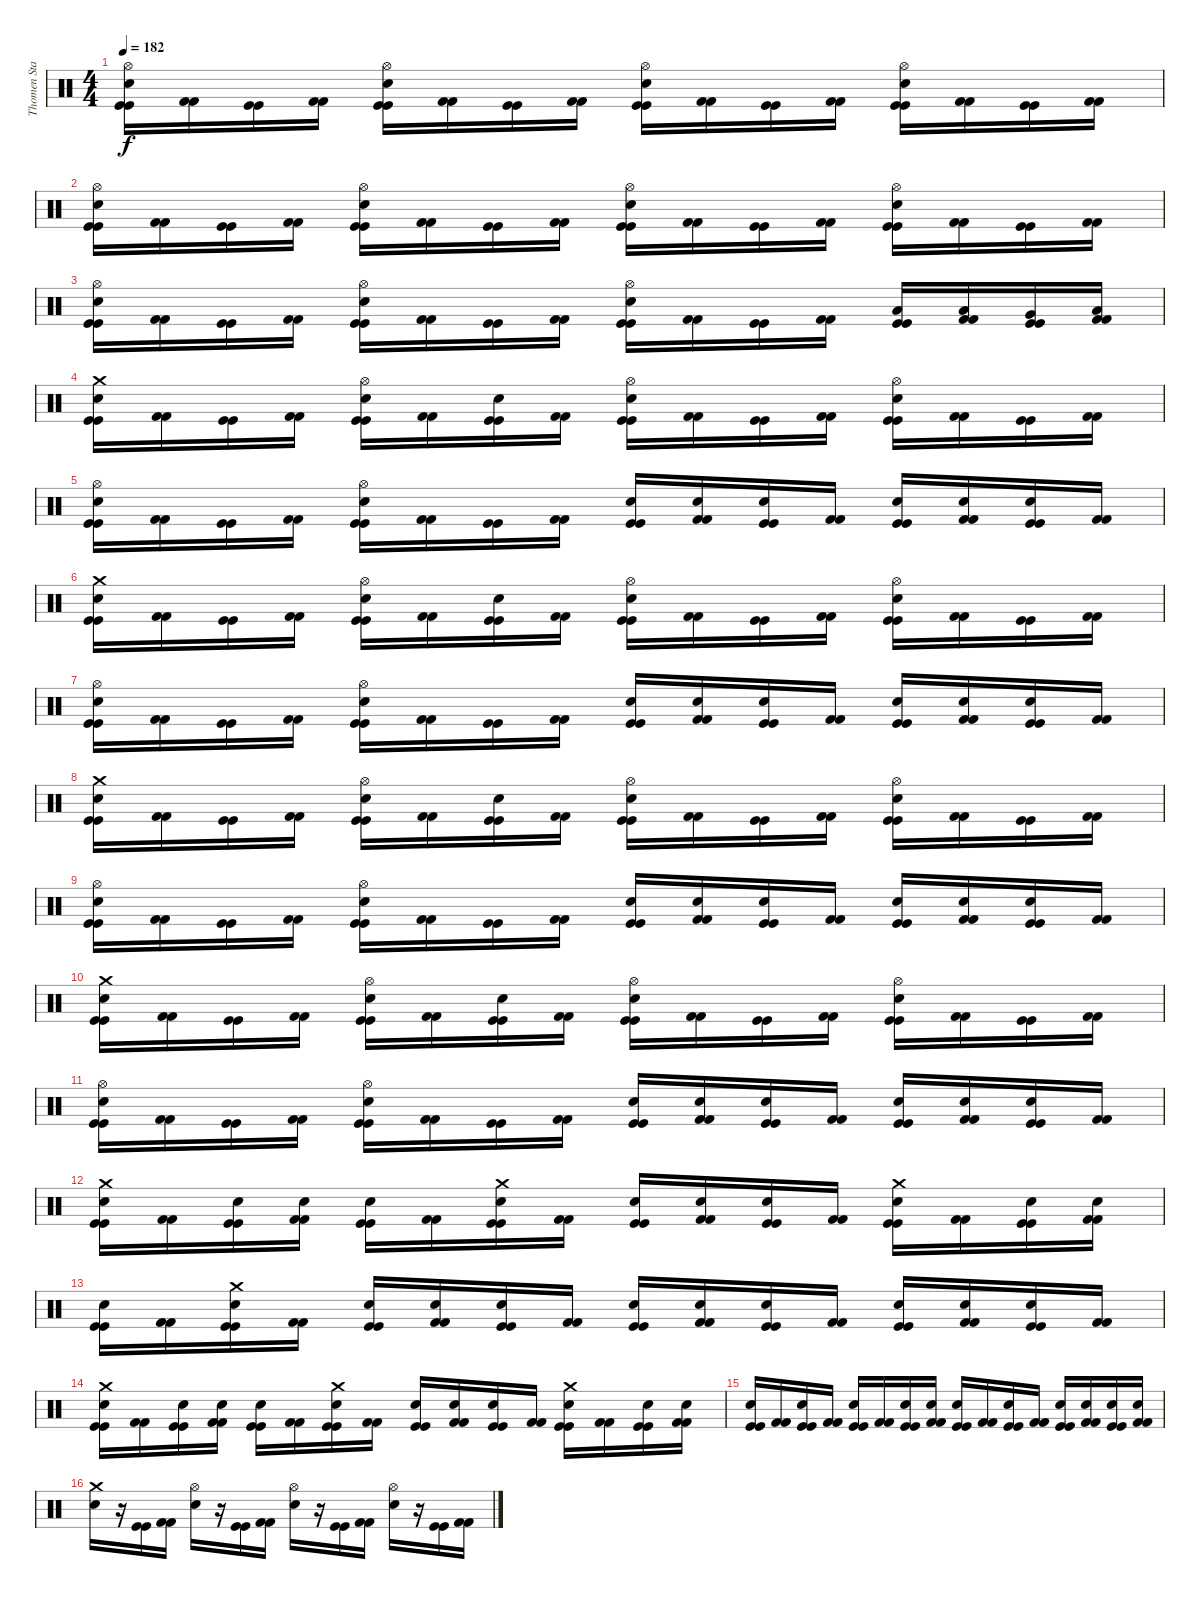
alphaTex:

\track ("Thomen Stauch" "Thomen Sta") {instrument percussion}
\staff {score}
\articulation defaults
\ts (4 4)
\tempo 182
\clef neutral
\ks c
("Hi-Hat (open)" "Snare (hit) 2" "Kick (hit)" "Kick (hit)").16{dy f} ("Kick (hit) 2" "Kick (hit) 2").16 ("Kick (hit)" "Kick (hit)").16 ("Kick (hit) 2" "Kick (hit) 2").16 ("Hi-Hat (open)" "Snare (hit) 2" "Kick (hit)" "Kick (hit)").16 ("Kick (hit) 2" "Kick (hit) 2").16 ("Kick (hit)" "Kick (hit)").16 ("Kick (hit) 2" "Kick (hit) 2").16 ("Hi-Hat (open)" "Snare (hit) 2" "Kick (hit)" "Kick (hit)").16 ("Kick (hit) 2" "Kick (hit) 2").16 ("Kick (hit)" "Kick (hit)").16 ("Kick (hit) 2" "Kick (hit) 2").16 ("Hi-Hat (open)" "Snare (hit) 2" "Kick (hit)" "Kick (hit)").16 ("Kick (hit) 2" "Kick (hit) 2").16 ("Kick (hit)" "Kick (hit)").16 ("Kick (hit) 2" "Kick (hit) 2").16 |
("Hi-Hat (open)" "Snare (hit) 2" "Kick (hit)" "Kick (hit)").16 ("Kick (hit) 2" "Kick (hit) 2").16 ("Kick (hit)" "Kick (hit)").16 ("Kick (hit) 2" "Kick (hit) 2").16 ("Hi-Hat (open)" "Snare (hit) 2" "Kick (hit)" "Kick (hit)").16 ("Kick (hit) 2" "Kick (hit) 2").16 ("Kick (hit)" "Kick (hit)").16 ("Kick (hit) 2" "Kick (hit) 2").16 ("Hi-Hat (open)" "Snare (hit) 2" "Kick (hit)" "Kick (hit)").16 ("Kick (hit) 2" "Kick (hit) 2").16 ("Kick (hit)" "Kick (hit)").16 ("Kick (hit) 2" "Kick (hit) 2").16 ("Hi-Hat (open)" "Snare (hit) 2" "Kick (hit)" "Kick (hit)").16 ("Kick (hit) 2" "Kick (hit) 2").16 ("Kick (hit)" "Kick (hit)").16 ("Kick (hit) 2" "Kick (hit) 2").16 |
("Hi-Hat (open)" "Snare (hit) 2" "Kick (hit)" "Kick (hit)").16 ("Kick (hit) 2" "Kick (hit) 2").16 ("Kick (hit)" "Kick (hit)").16 ("Kick (hit) 2" "Kick (hit) 2").16 ("Hi-Hat (open)" "Snare (hit) 2" "Kick (hit)" "Kick (hit)").16 ("Kick (hit) 2" "Kick (hit) 2").16 ("Kick (hit)" "Kick (hit)").16 ("Kick (hit) 2" "Kick (hit) 2").16 ("Hi-Hat (open)" "Snare (hit) 2" "Kick (hit)" "Kick (hit)").16 ("Kick (hit) 2" "Kick (hit) 2").16 ("Kick (hit)" "Kick (hit)").16 ("Kick (hit) 2" "Kick (hit) 2").16 ("Low Tom (hit)" "Kick (hit)" "Kick (hit)").16 ("Low Tom (hit)" "Kick (hit) 2" "Kick (hit) 2").16 ("Very Low Tom (hit)" "Kick (hit)" "Kick (hit)").16 ("Low Floor Tom (hit)" "Kick (hit) 2" "Kick (hit) 2").16 |
("Crash medium (hit)" "Snare (hit) 2" "Kick (hit)" "Kick (hit)").16 ("Kick (hit) 2" "Kick (hit) 2").16 ("Kick (hit)" "Kick (hit)").16 ("Kick (hit) 2" "Kick (hit) 2").16 ("Hi-Hat (open)" "Snare (hit) 2" "Kick (hit)" "Kick (hit)").16 ("Kick (hit) 2" "Kick (hit) 2").16 ("Snare (hit) 2" "Kick (hit)" "Kick (hit)").16 ("Kick (hit) 2" "Kick (hit) 2").16 ("Hi-Hat (open)" "Snare (hit) 2" "Kick (hit)" "Kick (hit)").16 ("Kick (hit) 2" "Kick (hit) 2").16 ("Kick (hit)" "Kick (hit)").16 ("Kick (hit) 2" "Kick (hit) 2").16 ("Hi-Hat (open)" "Snare (hit) 2" "Kick (hit)" "Kick (hit)").16 ("Kick (hit) 2" "Kick (hit) 2").16 ("Kick (hit)" "Kick (hit)").16 ("Kick (hit) 2" "Kick (hit) 2").16 |
("Hi-Hat (open)" "Snare (hit) 2" "Kick (hit)" "Kick (hit)").16 ("Kick (hit) 2" "Kick (hit) 2").16 ("Kick (hit)" "Kick (hit)").16 ("Kick (hit) 2" "Kick (hit) 2").16 ("Hi-Hat (open)" "Snare (hit) 2" "Kick (hit)" "Kick (hit)").16 ("Kick (hit) 2" "Kick (hit) 2").16 ("Kick (hit)" "Kick (hit)").16 ("Kick (hit) 2" "Kick (hit) 2").16 ("Snare (hit) 2" "Kick (hit)" "Kick (hit)").16 ("Snare (hit) 2" "Kick (hit) 2" "Kick (hit) 2").16 ("Snare (hit) 2" "Kick (hit)" "Kick (hit)").16 ("Kick (hit) 2" "Kick (hit) 2").16 ("Snare (hit) 2" "Kick (hit)" "Kick (hit)").16 ("Snare (hit) 2" "Kick (hit) 2" "Kick (hit) 2").16 ("Snare (hit) 2" "Kick (hit)" "Kick (hit)").16 ("Kick (hit) 2" "Kick (hit) 2").16 |
("Crash medium (hit)" "Snare (hit) 2" "Kick (hit)" "Kick (hit)").16 ("Kick (hit) 2" "Kick (hit) 2").16 ("Kick (hit)" "Kick (hit)").16 ("Kick (hit) 2" "Kick (hit) 2").16 ("Hi-Hat (open)" "Snare (hit) 2" "Kick (hit)" "Kick (hit)").16 ("Kick (hit) 2" "Kick (hit) 2").16 ("Snare (hit) 2" "Kick (hit)" "Kick (hit)").16 ("Kick (hit) 2" "Kick (hit) 2").16 ("Hi-Hat (open)" "Snare (hit) 2" "Kick (hit)" "Kick (hit)").16 ("Kick (hit) 2" "Kick (hit) 2").16 ("Kick (hit)" "Kick (hit)").16 ("Kick (hit) 2" "Kick (hit) 2").16 ("Hi-Hat (open)" "Snare (hit) 2" "Kick (hit)" "Kick (hit)").16 ("Kick (hit) 2" "Kick (hit) 2").16 ("Kick (hit)" "Kick (hit)").16 ("Kick (hit) 2" "Kick (hit) 2").16 |
("Hi-Hat (open)" "Snare (hit) 2" "Kick (hit)" "Kick (hit)").16 ("Kick (hit) 2" "Kick (hit) 2").16 ("Kick (hit)" "Kick (hit)").16 ("Kick (hit) 2" "Kick (hit) 2").16 ("Hi-Hat (open)" "Snare (hit) 2" "Kick (hit)" "Kick (hit)").16 ("Kick (hit) 2" "Kick (hit) 2").16 ("Kick (hit)" "Kick (hit)").16 ("Kick (hit) 2" "Kick (hit) 2").16 ("Snare (hit) 2" "Kick (hit)" "Kick (hit)").16 ("Snare (hit) 2" "Kick (hit) 2" "Kick (hit) 2").16 ("Snare (hit) 2" "Kick (hit)" "Kick (hit)").16 ("Kick (hit) 2" "Kick (hit) 2").16 ("Snare (hit) 2" "Kick (hit)" "Kick (hit)").16 ("Snare (hit) 2" "Kick (hit) 2" "Kick (hit) 2").16 ("Snare (hit) 2" "Kick (hit)" "Kick (hit)").16 ("Kick (hit) 2" "Kick (hit) 2").16 |
("Crash medium (hit)" "Snare (hit) 2" "Kick (hit)" "Kick (hit)").16 ("Kick (hit) 2" "Kick (hit) 2").16 ("Kick (hit)" "Kick (hit)").16 ("Kick (hit) 2" "Kick (hit) 2").16 ("Hi-Hat (open)" "Snare (hit) 2" "Kick (hit)" "Kick (hit)").16 ("Kick (hit) 2" "Kick (hit) 2").16 ("Snare (hit) 2" "Kick (hit)" "Kick (hit)").16 ("Kick (hit) 2" "Kick (hit) 2").16 ("Hi-Hat (open)" "Snare (hit) 2" "Kick (hit)" "Kick (hit)").16 ("Kick (hit) 2" "Kick (hit) 2").16 ("Kick (hit)" "Kick (hit)").16 ("Kick (hit) 2" "Kick (hit) 2").16 ("Hi-Hat (open)" "Snare (hit) 2" "Kick (hit)" "Kick (hit)").16 ("Kick (hit) 2" "Kick (hit) 2").16 ("Kick (hit)" "Kick (hit)").16 ("Kick (hit) 2" "Kick (hit) 2").16 |
("Hi-Hat (open)" "Snare (hit) 2" "Kick (hit)" "Kick (hit)").16 ("Kick (hit) 2" "Kick (hit) 2").16 ("Kick (hit)" "Kick (hit)").16 ("Kick (hit) 2" "Kick (hit) 2").16 ("Hi-Hat (open)" "Snare (hit) 2" "Kick (hit)" "Kick (hit)").16 ("Kick (hit) 2" "Kick (hit) 2").16 ("Kick (hit)" "Kick (hit)").16 ("Kick (hit) 2" "Kick (hit) 2").16 ("Snare (hit) 2" "Kick (hit)" "Kick (hit)").16 ("Snare (hit) 2" "Kick (hit) 2" "Kick (hit) 2").16 ("Snare (hit) 2" "Kick (hit)" "Kick (hit)").16 ("Kick (hit) 2" "Kick (hit) 2").16 ("Snare (hit) 2" "Kick (hit)" "Kick (hit)").16 ("Snare (hit) 2" "Kick (hit) 2" "Kick (hit) 2").16 ("Snare (hit) 2" "Kick (hit)" "Kick (hit)").16 ("Kick (hit) 2" "Kick (hit) 2").16 |
("Crash medium (hit)" "Snare (hit) 2" "Kick (hit)" "Kick (hit)").16 ("Kick (hit) 2" "Kick (hit) 2").16 ("Kick (hit)" "Kick (hit)").16 ("Kick (hit) 2" "Kick (hit) 2").16 ("Hi-Hat (open)" "Snare (hit) 2" "Kick (hit)" "Kick (hit)").16 ("Kick (hit) 2" "Kick (hit) 2").16 ("Snare (hit) 2" "Kick (hit)" "Kick (hit)").16 ("Kick (hit) 2" "Kick (hit) 2").16 ("Hi-Hat (open)" "Snare (hit) 2" "Kick (hit)" "Kick (hit)").16 ("Kick (hit) 2" "Kick (hit) 2").16 ("Kick (hit)" "Kick (hit)").16 ("Kick (hit) 2" "Kick (hit) 2").16 ("Hi-Hat (open)" "Snare (hit) 2" "Kick (hit)" "Kick (hit)").16 ("Kick (hit) 2" "Kick (hit) 2").16 ("Kick (hit)" "Kick (hit)").16 ("Kick (hit) 2" "Kick (hit) 2").16 |
("Hi-Hat (open)" "Snare (hit) 2" "Kick (hit)" "Kick (hit)").16 ("Kick (hit) 2" "Kick (hit) 2").16 ("Kick (hit)" "Kick (hit)").16 ("Kick (hit) 2" "Kick (hit) 2").16 ("Hi-Hat (open)" "Snare (hit) 2" "Kick (hit)" "Kick (hit)").16 ("Kick (hit) 2" "Kick (hit) 2").16 ("Kick (hit)" "Kick (hit)").16 ("Kick (hit) 2" "Kick (hit) 2").16 ("Snare (hit) 2" "Kick (hit)" "Kick (hit)").16 ("Snare (hit) 2" "Kick (hit) 2" "Kick (hit) 2").16 ("Snare (hit) 2" "Kick (hit)" "Kick (hit)").16 ("Kick (hit) 2" "Kick (hit) 2").16 ("Snare (hit) 2" "Kick (hit)" "Kick (hit)").16 ("Snare (hit) 2" "Kick (hit) 2" "Kick (hit) 2").16 ("Snare (hit) 2" "Kick (hit)" "Kick (hit)").16 ("Kick (hit) 2" "Kick (hit) 2").16 |
("Crash medium (hit)" "Snare (hit) 2" "Kick (hit)" "Kick (hit)").16 ("Kick (hit) 2" "Kick (hit) 2").16 ("Snare (hit) 2" "Kick (hit)" "Kick (hit)").16 ("Snare (hit) 2" "Kick (hit) 2" "Kick (hit) 2").16 ("Snare (hit) 2" "Kick (hit)" "Kick (hit)").16 ("Kick (hit) 2" "Kick (hit) 2").16 ("Crash medium (hit)" "Snare (hit) 2" "Kick (hit)" "Kick (hit)").16 ("Kick (hit) 2" "Kick (hit) 2").16 ("Snare (hit) 2" "Kick (hit)" "Kick (hit)").16 ("Snare (hit) 2" "Kick (hit) 2" "Kick (hit) 2").16 ("Snare (hit) 2" "Kick (hit)" "Kick (hit)").16 ("Kick (hit) 2" "Kick (hit) 2").16 ("Crash medium (hit)" "Snare (hit) 2" "Kick (hit)" "Kick (hit)").16 ("Kick (hit) 2" "Kick (hit) 2").16 ("Snare (hit) 2" "Kick (hit)" "Kick (hit)").16 ("Snare (hit) 2" "Kick (hit) 2" "Kick (hit) 2").16 |
("Snare (hit) 2" "Kick (hit)" "Kick (hit)").16 ("Kick (hit) 2" "Kick (hit) 2").16 ("Crash medium (hit)" "Snare (hit) 2" "Kick (hit)" "Kick (hit)").16 ("Kick (hit) 2" "Kick (hit) 2").16 ("Snare (hit) 2" "Kick (hit)" "Kick (hit)").16 ("Snare (hit) 2" "Kick (hit) 2" "Kick (hit) 2").16 ("Snare (hit) 2" "Kick (hit)" "Kick (hit)").16 ("Kick (hit) 2" "Kick (hit) 2").16 ("Snare (hit) 2" "Kick (hit)" "Kick (hit)").16 ("Snare (hit) 2" "Kick (hit) 2" "Kick (hit) 2").16 ("Snare (hit) 2" "Kick (hit)" "Kick (hit)").16 ("Kick (hit) 2" "Kick (hit) 2").16 ("Snare (hit) 2" "Kick (hit)" "Kick (hit)").16 ("Snare (hit) 2" "Kick (hit) 2" "Kick (hit) 2").16 ("Snare (hit) 2" "Kick (hit)" "Kick (hit)").16 ("Kick (hit) 2" "Kick (hit) 2").16 |
("Crash medium (hit)" "Snare (hit) 2" "Kick (hit)" "Kick (hit)").16 ("Kick (hit) 2" "Kick (hit) 2").16 ("Snare (hit) 2" "Kick (hit)" "Kick (hit)").16 ("Snare (hit) 2" "Kick (hit) 2" "Kick (hit) 2").16 ("Snare (hit) 2" "Kick (hit)" "Kick (hit)").16 ("Kick (hit) 2" "Kick (hit) 2").16 ("Crash medium (hit)" "Snare (hit) 2" "Kick (hit)" "Kick (hit)").16 ("Kick (hit) 2" "Kick (hit) 2").16 ("Snare (hit) 2" "Kick (hit)" "Kick (hit)").16 ("Snare (hit) 2" "Kick (hit) 2" "Kick (hit) 2").16 ("Snare (hit) 2" "Kick (hit)" "Kick (hit)").16 ("Kick (hit) 2" "Kick (hit) 2").16 ("Crash medium (hit)" "Snare (hit) 2" "Kick (hit)" "Kick (hit)").16 ("Kick (hit) 2" "Kick (hit) 2").16 ("Snare (hit) 2" "Kick (hit)" "Kick (hit)").16 ("Snare (hit) 2" "Kick (hit) 2" "Kick (hit) 2").16 |
("Snare (hit) 2" "Kick (hit)" "Kick (hit)").16 ("Kick (hit) 2" "Kick (hit) 2").16 ("Snare (hit) 2" "Kick (hit)" "Kick (hit)").16 ("Kick (hit) 2" "Kick (hit) 2").16 ("Snare (hit) 2" "Kick (hit)" "Kick (hit)").16 ("Kick (hit) 2" "Kick (hit) 2").16 ("Snare (hit) 2" "Kick (hit)" "Kick (hit)").16 ("Snare (hit) 2" "Kick (hit) 2" "Kick (hit) 2").16 ("Snare (hit) 2" "Kick (hit)" "Kick (hit)").16 ("Kick (hit) 2" "Kick (hit) 2").16 ("Snare (hit) 2" "Kick (hit)" "Kick (hit)").16 ("Kick (hit) 2" "Kick (hit) 2").16 ("Snare (hit) 2" "Kick (hit)" "Kick (hit)").16 ("Snare (hit) 2" "Kick (hit) 2" "Kick (hit) 2").16 ("Snare (hit) 2" "Kick (hit)" "Kick (hit)").16 ("Snare (hit) 2" "Kick (hit) 2" "Kick (hit) 2").16 |
("Crash medium (hit)" "Snare (hit) 2").16 r.16 ("Kick (hit)" "Kick (hit)").16 ("Kick (hit) 2" "Kick (hit) 2").16 ("Hi-Hat (open)" "Snare (hit) 2").16 r.16 ("Kick (hit)" "Kick (hit)").16 ("Kick (hit) 2" "Kick (hit) 2").16 ("Hi-Hat (open)" "Snare (hit) 2").16 r.16 ("Kick (hit)" "Kick (hit)").16 ("Kick (hit) 2" "Kick (hit) 2").16 ("Hi-Hat (open)" "Snare (hit) 2").16 r.16 ("Kick (hit)" "Kick (hit)").16 ("Kick (hit) 2" "Kick (hit) 2").16
